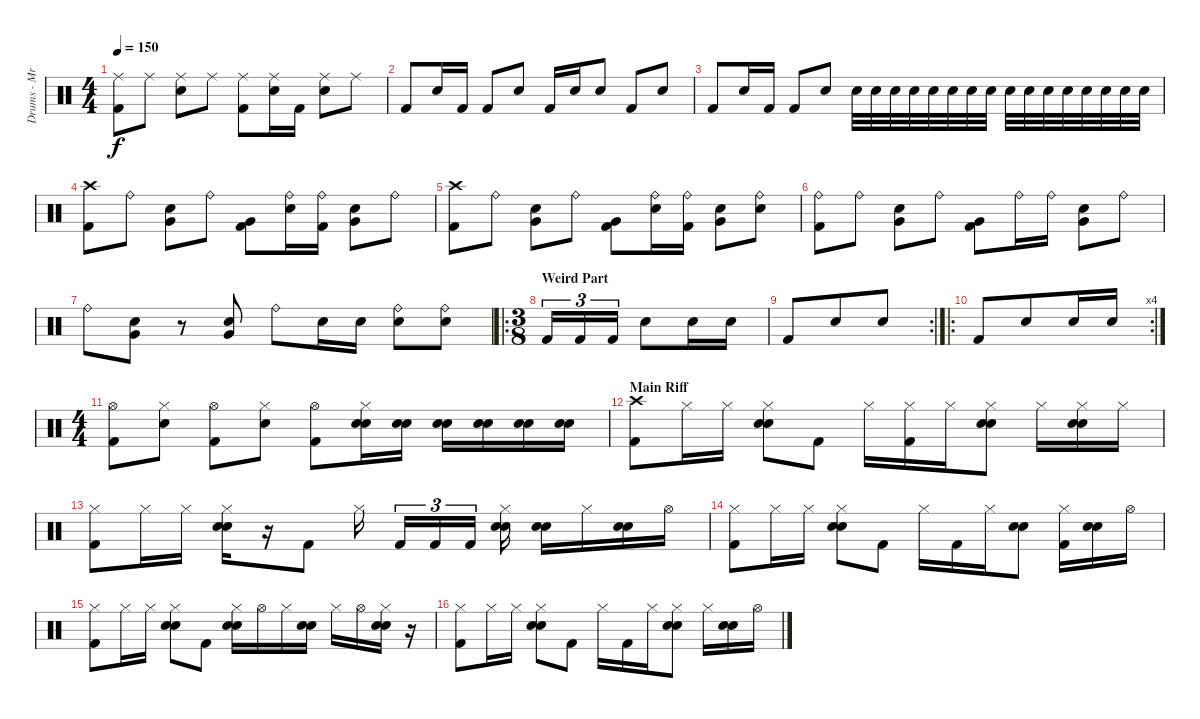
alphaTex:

\track ("Drums - Mr. Beller, Thomas" "Drums - Mr") {instrument percussion}
\staff {score}
\articulation defaults
\ts (4 4)
\tempo 150
\clef neutral
\ks c
("Ride (middle)" "Kick (hit) 2").8{dy f} "Ride (middle)".8 ("Ride (middle)" "Electric Snare (hit)").8 "Ride (middle)".8 ("Ride (middle)" "Kick (hit) 2").8 ("Ride (middle)" "Electric Snare (hit)").16 "Kick (hit) 2".16 ("Ride (middle)" "Electric Snare (hit)").8 "Ride (middle)".8 |
"Kick (hit) 2".8 "Electric Snare (hit)".16 "Kick (hit) 2".16 "Kick (hit) 2".8 "Electric Snare (hit)".8 "Kick (hit) 2".16 "Electric Snare (hit)".16 "Electric Snare (hit)".8 "Kick (hit) 2".8 "Electric Snare (hit)".8 |
"Kick (hit) 2".8 "Electric Snare (hit)".16 "Kick (hit) 2".16 "Kick (hit) 2".8 "Electric Snare (hit)".8 "Electric Snare (hit)".32 "Electric Snare (hit)".32 "Electric Snare (hit)".32 "Electric Snare (hit)".32 "Electric Snare (hit)".32 "Electric Snare (hit)".32 "Electric Snare (hit)".32 "Electric Snare (hit)".32 "Electric Snare (hit)".32 "Electric Snare (hit)".32 "Electric Snare (hit)".32 "Electric Snare (hit)".32 "Electric Snare (hit)".32 "Electric Snare (hit)".32 "Electric Snare (hit)".32 "Electric Snare (hit)".32 |
("Crash high (hit)" "Kick (hit) 2").8 "Ride (bell)".8 ("Very Low Tom (hit)" "Electric Snare (hit)").8 "Ride (bell)".8 ("Very Low Tom (hit)" "Kick (hit) 2").8 ("Ride (bell)" "Electric Snare (hit)").16 ("Ride (bell)" "Kick (hit) 2").16 ("Very Low Tom (hit)" "Electric Snare (hit)").8 "Ride (bell)".8 |
("Crash high (hit)" "Kick (hit) 2").8 "Ride (bell)".8 ("Very Low Tom (hit)" "Electric Snare (hit)").8 "Ride (bell)".8 ("Very Low Tom (hit)" "Kick (hit) 2").8 ("Ride (bell)" "Electric Snare (hit)").16 ("Ride (bell)" "Kick (hit) 2").16 ("Very Low Tom (hit)" "Electric Snare (hit)").8 ("Ride (bell)" "Electric Snare (hit)").8 |
("Ride (bell)" "Kick (hit) 2").8 "Ride (bell)".8 ("Very Low Tom (hit)" "Electric Snare (hit)").8 "Ride (bell)".8 ("Very Low Tom (hit)" "Kick (hit) 2").8 "Ride (bell)".16 "Ride (bell)".16 ("Very Low Tom (hit)" "Electric Snare (hit)").8 "Ride (bell)".8 |
"Ride (bell)".8 ("Very Low Tom (hit)" "Electric Snare (hit)").8 r.8 ("Very Low Tom (hit)" "Electric Snare (hit)").8 "Ride (bell)".8 "Electric Snare (hit)".16 "Electric Snare (hit)".16 ("Ride (bell)" "Electric Snare (hit)").8 ("Ride (bell)" "Electric Snare (hit)").8 |
\ro
\ts (3 8)
\section ("" "Weird Part")
"Kick (hit) 2".16{tu (3 2)} "Kick (hit) 2".16{tu (3 2)} "Kick (hit) 2".16{tu (3 2)} "Electric Snare (hit)".8 "Electric Snare (hit)".16 "Electric Snare (hit)".16 |
\rc 2 "Kick (hit) 2".8 "Electric Snare (hit)".8 "Electric Snare (hit)".8
|
\ro
\rc 4 "Kick (hit) 2".8 "Electric Snare (hit)".8 "Electric Snare (hit)".16 "Electric Snare (hit)".16
|
\ts (4 4)
("Hi-Hat (open)" "Kick (hit) 2").8 ("Hi-Hat (closed)" "Electric Snare (hit)").8 ("Hi-Hat (open)" "Kick (hit) 2").8 ("Hi-Hat (closed)" "Electric Snare (hit)").8 ("Hi-Hat (open)" "Kick (hit) 2").8 ("Hi-Hat (closed)" "Electric Snare (hit)" "Electric Snare (hit)").16 ("Electric Snare (hit)" "Electric Snare (hit)").16 ("Electric Snare (hit)" "Electric Snare (hit)").16 ("Electric Snare (hit)" "Electric Snare (hit)").16 ("Electric Snare (hit)" "Electric Snare (hit)").16 ("Electric Snare (hit)" "Electric Snare (hit)").16 |
\section ("" "Main Riff")
("Crash high (hit)" "Kick (hit) 2").8 "Hi-Hat (closed)".16 "Hi-Hat (closed)".16 ("Hi-Hat (closed)" "Electric Snare (hit)" "Electric Snare (hit)").8 "Kick (hit) 2".8 "Hi-Hat (closed)".16 ("Hi-Hat (closed)" "Kick (hit) 2").16 "Hi-Hat (closed)".16 ("Hi-Hat (closed)" "Electric Snare (hit)" "Electric Snare (hit)").8 "Hi-Hat (closed)".16 ("Hi-Hat (closed)" "Electric Snare (hit)" "Electric Snare (hit)").16 "Hi-Hat (closed)".16 |
("Hi-Hat (closed)" "Kick (hit) 2").8 "Hi-Hat (closed)".16 "Hi-Hat (closed)".16 ("Hi-Hat (closed)" "Electric Snare (hit)" "Electric Snare (hit)").16 r.16 "Kick (hit) 2".8 "Hi-Hat (closed)".16 "Kick (hit) 2".16{tu (3 2)} "Kick (hit) 2".16{tu (3 2)} "Kick (hit) 2".16{tu (3 2)} ("Hi-Hat (closed)" "Electric Snare (hit)" "Electric Snare (hit)").16 ("Electric Snare (hit)" "Electric Snare (hit)").16 "Hi-Hat (closed)".16 ("Electric Snare (hit)" "Electric Snare (hit)").16 "Hi-Hat (open)".16 |
("Hi-Hat (closed)" "Kick (hit) 2").8 "Hi-Hat (closed)".16 "Hi-Hat (closed)".16 ("Hi-Hat (closed)" "Electric Snare (hit)" "Electric Snare (hit)").8 "Kick (hit) 2".8 "Hi-Hat (closed)".16 "Kick (hit) 2".16 "Hi-Hat (closed)".16 ("Electric Snare (hit)" "Electric Snare (hit)").8 ("Hi-Hat (closed)" "Kick (hit) 2").16 ("Electric Snare (hit)" "Electric Snare (hit)").16 "Hi-Hat (open)".16 |
("Hi-Hat (closed)" "Kick (hit) 2").8 "Hi-Hat (closed)".16 "Hi-Hat (closed)".16 ("Hi-Hat (closed)" "Electric Snare (hit)" "Electric Snare (hit)").8 "Kick (hit) 2".8 ("Hi-Hat (closed)" "Electric Snare (hit)" "Electric Snare (hit)").16 "Hi-Hat (open)".16 "Hi-Hat (closed)".16 ("Electric Snare (hit)" "Electric Snare (hit)").16 "Hi-Hat (closed)".16 "Hi-Hat (open)".16 ("Hi-Hat (closed)" "Electric Snare (hit)" "Electric Snare (hit)").16 r.16 |
("Hi-Hat (closed)" "Kick (hit) 2").8 "Hi-Hat (closed)".16 "Hi-Hat (closed)".16 ("Hi-Hat (closed)" "Electric Snare (hit)" "Electric Snare (hit)").8 "Kick (hit) 2".8 "Hi-Hat (closed)".16 "Kick (hit) 2".16 "Hi-Hat (closed)".16 ("Hi-Hat (closed)" "Electric Snare (hit)" "Electric Snare (hit)").8 "Hi-Hat (closed)".16 ("Electric Snare (hit)" "Electric Snare (hit)").16 "Hi-Hat (open)".16
